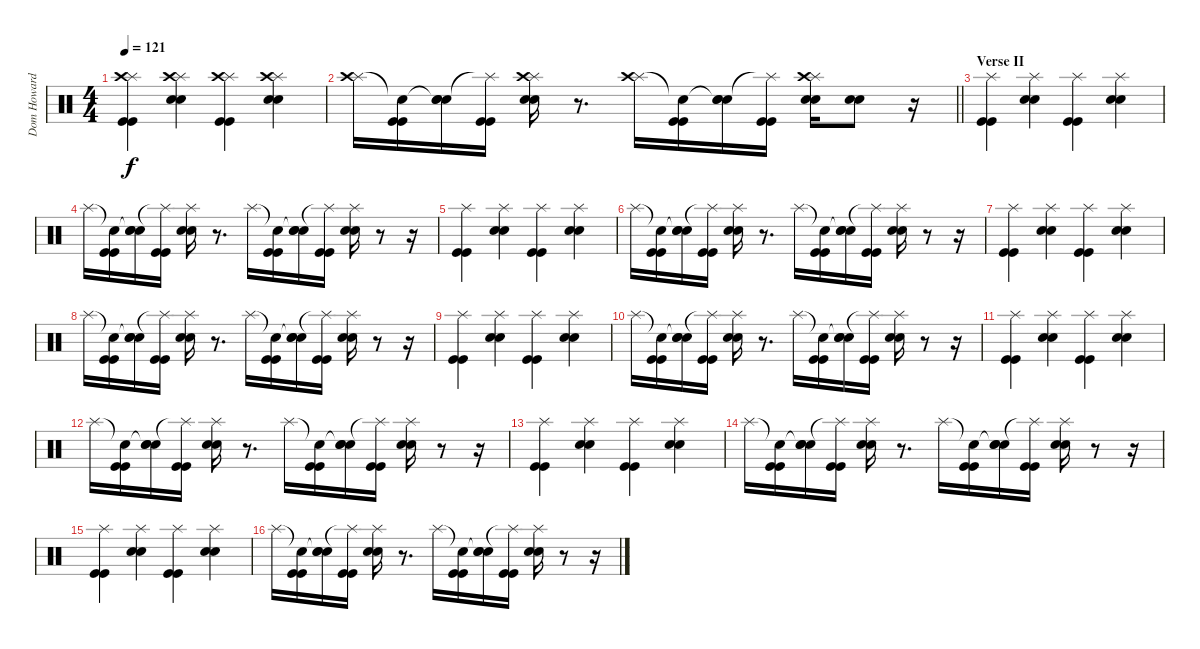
\track ("Dom Howard - Drums" "Dom Howard") {instrument percussion}
\staff {score}
\articulation defaults
\ts (4 4)
\tempo 121
\clef neutral
\ks c
("Splash (hit)" "Crash high (hit)" "Kick (hit)" "Kick (hit)").4{dy f} ("Splash (hit)" "Crash high (hit)" "Electric Snare (hit)" "Electric Snare (hit)").4 ("Splash (hit)" "Crash high (hit)" "Kick (hit)" "Kick (hit)").4 ("Splash (hit)" "Crash high (hit)" "Electric Snare (hit)" "Electric Snare (hit)").4 |
\barLineRight lightlight
("Splash (hit)" "Crash high (hit)").16 ("Snare (hit)"{t} "Kick (hit)" "Kick (hit)").16 ("Snare (hit)"{t} "Electric Snare (hit)" "Electric Snare (hit)").16 ("Splash (hit)"{t} "Kick (hit)" "Kick (hit)").16 ("Splash (hit)" "Crash high (hit)" "Electric Snare (hit)" "Electric Snare (hit)").16 r.8{d} ("Splash (hit)" "Crash high (hit)").16 ("Snare (hit)"{t} "Kick (hit)" "Kick (hit)").16 ("Snare (hit)"{t} "Electric Snare (hit)" "Electric Snare (hit)").16 ("Splash (hit)"{t} "Kick (hit)" "Kick (hit)").16 ("Splash (hit)" "Crash high (hit)" "Electric Snare (hit)" "Electric Snare (hit)").16 ("Electric Snare (hit)" "Electric Snare (hit)").8 r.16 |
\section ("" "Verse II")
("Splash (hit)" "Kick (hit)" "Kick (hit)").4 ("Splash (hit)" "Electric Snare (hit)" "Electric Snare (hit)").4 ("Splash (hit)" "Kick (hit)" "Kick (hit)").4 ("Splash (hit)" "Electric Snare (hit)" "Electric Snare (hit)").4 |
"Splash (hit)".16 ("Snare (hit)"{t} "Kick (hit)" "Kick (hit)").16 ("Snare (hit)"{t} "Electric Snare (hit)" "Electric Snare (hit)").16 ("Splash (hit)"{t} "Kick (hit)" "Kick (hit)").16 ("Splash (hit)" "Electric Snare (hit)" "Electric Snare (hit)").16 r.8{d} "Splash (hit)".16 ("Snare (hit)"{t} "Kick (hit)" "Kick (hit)").16 ("Snare (hit)"{t} "Electric Snare (hit)" "Electric Snare (hit)").16 ("Splash (hit)"{t} "Kick (hit)" "Kick (hit)").16 ("Splash (hit)" "Electric Snare (hit)" "Electric Snare (hit)").16 r.8 r.16 |
("Splash (hit)" "Kick (hit)" "Kick (hit)").4 ("Splash (hit)" "Electric Snare (hit)" "Electric Snare (hit)").4 ("Splash (hit)" "Kick (hit)" "Kick (hit)").4 ("Splash (hit)" "Electric Snare (hit)" "Electric Snare (hit)").4 |
"Splash (hit)".16 ("Snare (hit)"{t} "Kick (hit)" "Kick (hit)").16 ("Snare (hit)"{t} "Electric Snare (hit)" "Electric Snare (hit)").16 ("Splash (hit)"{t} "Kick (hit)" "Kick (hit)").16 ("Splash (hit)" "Electric Snare (hit)" "Electric Snare (hit)").16 r.8{d} "Splash (hit)".16 ("Snare (hit)"{t} "Kick (hit)" "Kick (hit)").16 ("Snare (hit)"{t} "Electric Snare (hit)" "Electric Snare (hit)").16 ("Splash (hit)"{t} "Kick (hit)" "Kick (hit)").16 ("Splash (hit)" "Electric Snare (hit)" "Electric Snare (hit)").16 r.8 r.16 |
("Splash (hit)" "Kick (hit)" "Kick (hit)").4 ("Splash (hit)" "Electric Snare (hit)" "Electric Snare (hit)").4 ("Splash (hit)" "Kick (hit)" "Kick (hit)").4 ("Splash (hit)" "Electric Snare (hit)" "Electric Snare (hit)").4 |
"Splash (hit)".16 ("Snare (hit)"{t} "Kick (hit)" "Kick (hit)").16 ("Snare (hit)"{t} "Electric Snare (hit)" "Electric Snare (hit)").16 ("Splash (hit)"{t} "Kick (hit)" "Kick (hit)").16 ("Splash (hit)" "Electric Snare (hit)" "Electric Snare (hit)").16 r.8{d} "Splash (hit)".16 ("Snare (hit)"{t} "Kick (hit)" "Kick (hit)").16 ("Snare (hit)"{t} "Electric Snare (hit)" "Electric Snare (hit)").16 ("Splash (hit)"{t} "Kick (hit)" "Kick (hit)").16 ("Splash (hit)" "Electric Snare (hit)" "Electric Snare (hit)").16 r.8 r.16 |
("Splash (hit)" "Kick (hit)" "Kick (hit)").4 ("Splash (hit)" "Electric Snare (hit)" "Electric Snare (hit)").4 ("Splash (hit)" "Kick (hit)" "Kick (hit)").4 ("Splash (hit)" "Electric Snare (hit)" "Electric Snare (hit)").4 |
"Splash (hit)".16 ("Snare (hit)"{t} "Kick (hit)" "Kick (hit)").16 ("Snare (hit)"{t} "Electric Snare (hit)" "Electric Snare (hit)").16 ("Splash (hit)"{t} "Kick (hit)" "Kick (hit)").16 ("Splash (hit)" "Electric Snare (hit)" "Electric Snare (hit)").16 r.8{d} "Splash (hit)".16 ("Snare (hit)"{t} "Kick (hit)" "Kick (hit)").16 ("Snare (hit)"{t} "Electric Snare (hit)" "Electric Snare (hit)").16 ("Splash (hit)"{t} "Kick (hit)" "Kick (hit)").16 ("Splash (hit)" "Electric Snare (hit)" "Electric Snare (hit)").16 r.8 r.16 |
("Splash (hit)" "Kick (hit)" "Kick (hit)").4 ("Splash (hit)" "Electric Snare (hit)" "Electric Snare (hit)").4 ("Splash (hit)" "Kick (hit)" "Kick (hit)").4 ("Splash (hit)" "Electric Snare (hit)" "Electric Snare (hit)").4 |
"Splash (hit)".16 ("Snare (hit)"{t} "Kick (hit)" "Kick (hit)").16 ("Snare (hit)"{t} "Electric Snare (hit)" "Electric Snare (hit)").16 ("Splash (hit)"{t} "Kick (hit)" "Kick (hit)").16 ("Splash (hit)" "Electric Snare (hit)" "Electric Snare (hit)").16 r.8{d} "Splash (hit)".16 ("Snare (hit)"{t} "Kick (hit)" "Kick (hit)").16 ("Snare (hit)"{t} "Electric Snare (hit)" "Electric Snare (hit)").16 ("Splash (hit)"{t} "Kick (hit)" "Kick (hit)").16 ("Splash (hit)" "Electric Snare (hit)" "Electric Snare (hit)").16 r.8 r.16 |
("Splash (hit)" "Kick (hit)" "Kick (hit)").4 ("Splash (hit)" "Electric Snare (hit)" "Electric Snare (hit)").4 ("Splash (hit)" "Kick (hit)" "Kick (hit)").4 ("Splash (hit)" "Electric Snare (hit)" "Electric Snare (hit)").4 |
"Splash (hit)".16 ("Snare (hit)"{t} "Kick (hit)" "Kick (hit)").16 ("Snare (hit)"{t} "Electric Snare (hit)" "Electric Snare (hit)").16 ("Splash (hit)"{t} "Kick (hit)" "Kick (hit)").16 ("Splash (hit)" "Electric Snare (hit)" "Electric Snare (hit)").16 r.8{d} "Splash (hit)".16 ("Snare (hit)"{t} "Kick (hit)" "Kick (hit)").16 ("Snare (hit)"{t} "Electric Snare (hit)" "Electric Snare (hit)").16 ("Splash (hit)"{t} "Kick (hit)" "Kick (hit)").16 ("Splash (hit)" "Electric Snare (hit)" "Electric Snare (hit)").16 r.8 r.16 |
("Splash (hit)" "Kick (hit)" "Kick (hit)").4 ("Splash (hit)" "Electric Snare (hit)" "Electric Snare (hit)").4 ("Splash (hit)" "Kick (hit)" "Kick (hit)").4 ("Splash (hit)" "Electric Snare (hit)" "Electric Snare (hit)").4 |
"Splash (hit)".16 ("Snare (hit)"{t} "Kick (hit)" "Kick (hit)").16 ("Snare (hit)"{t} "Electric Snare (hit)" "Electric Snare (hit)").16 ("Splash (hit)"{t} "Kick (hit)" "Kick (hit)").16 ("Splash (hit)" "Electric Snare (hit)" "Electric Snare (hit)").16 r.8{d} "Splash (hit)".16 ("Snare (hit)"{t} "Kick (hit)" "Kick (hit)").16 ("Snare (hit)"{t} "Electric Snare (hit)" "Electric Snare (hit)").16 ("Splash (hit)"{t} "Kick (hit)" "Kick (hit)").16 ("Splash (hit)" "Electric Snare (hit)" "Electric Snare (hit)").16 r.8 r.16
